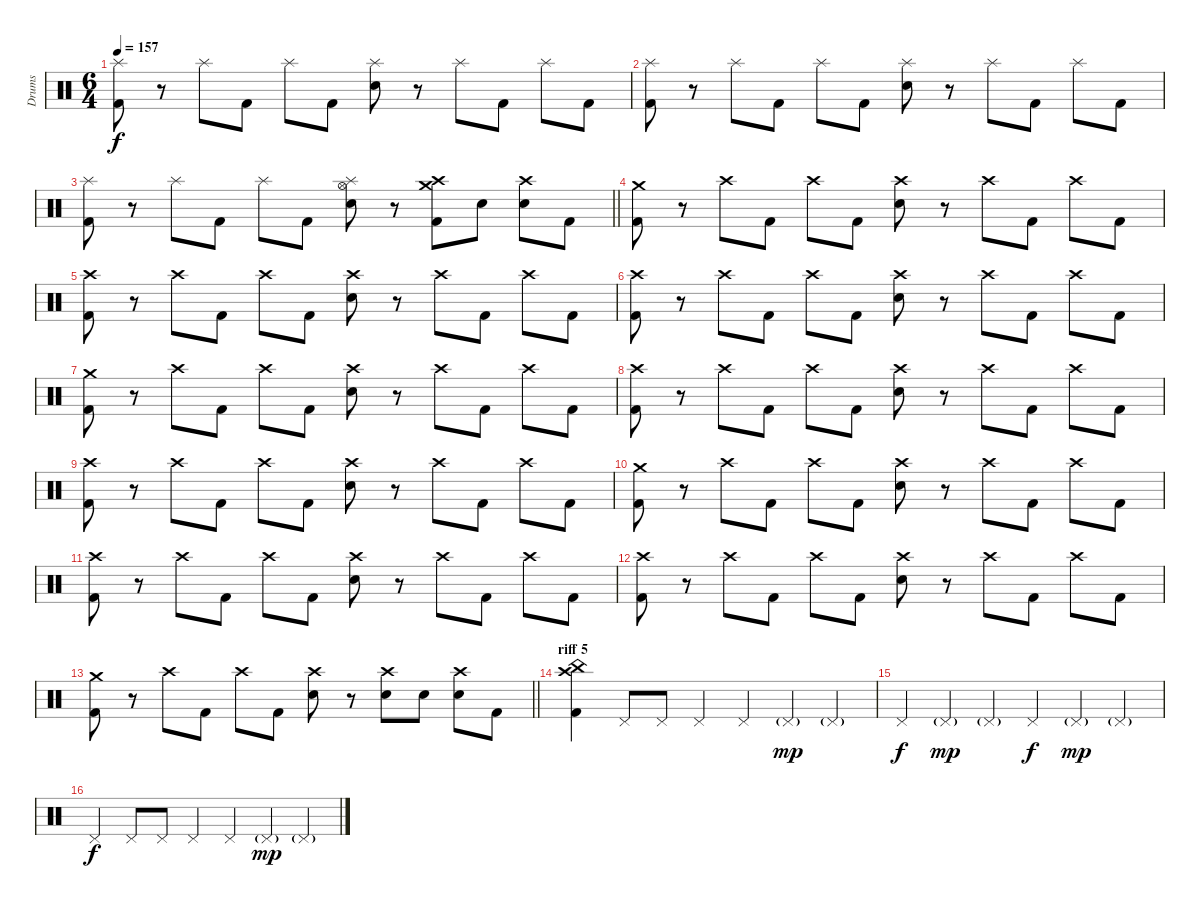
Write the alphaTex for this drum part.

\track ("Drums" "Drums") {instrument percussion}
\staff {score}
\articulation defaults
\ts (6 4)
\tempo 157
\clef neutral
\ks c
("Splash (hit)" "Kick (hit) 2").8{dy f} r.8 "Splash (hit)".8 "Kick (hit) 2".8 "Splash (hit)".8 "Kick (hit) 2".8 ("Splash (hit)" "Electric Snare (hit)").8 r.8 "Splash (hit)".8 "Kick (hit) 2".8 "Splash (hit)".8 "Kick (hit) 2".8 |
("Splash (hit)" "Kick (hit) 2").8 r.8 "Splash (hit)".8 "Kick (hit) 2".8 "Splash (hit)".8 "Kick (hit) 2".8 ("Splash (hit)" "Electric Snare (hit)").8 r.8 "Splash (hit)".8 "Kick (hit) 2".8 "Splash (hit)".8 "Kick (hit) 2".8 |
\barLineRight lightlight
("Splash (hit)" "Kick (hit) 2").8 r.8 "Splash (hit)".8 "Kick (hit) 2".8 "Splash (hit)".8 "Kick (hit) 2".8 ("Hi-Hat (open)" "Splash (hit)" "Electric Snare (hit)").8 r.8 ("Crash high (hit)" "Crash medium (hit)" "Kick (hit) 2").8 "Electric Snare (hit)".8 ("Crash high (hit)" "Electric Snare (hit)").8 "Kick (hit) 2".8 |
("Crash medium (hit)" "Kick (hit) 2").8 r.8 "Crash high (hit)".8 "Kick (hit) 2".8 "Crash high (hit)".8 "Kick (hit) 2".8 ("Crash high (hit)" "Electric Snare (hit)").8 r.8 "Crash high (hit)".8 "Kick (hit) 2".8 "Crash high (hit)".8 "Kick (hit) 2".8 |
("Crash high (hit)" "Kick (hit) 2").8 r.8 "Crash high (hit)".8 "Kick (hit) 2".8 "Crash high (hit)".8 "Kick (hit) 2".8 ("Crash high (hit)" "Electric Snare (hit)").8 r.8 "Crash high (hit)".8 "Kick (hit) 2".8 "Crash high (hit)".8 "Kick (hit) 2".8 |
("Crash high (hit)" "Kick (hit) 2").8 r.8 "Crash high (hit)".8 "Kick (hit) 2".8 "Crash high (hit)".8 "Kick (hit) 2".8 ("Crash high (hit)" "Electric Snare (hit)").8 r.8 "Crash high (hit)".8 "Kick (hit) 2".8 "Crash high (hit)".8 "Kick (hit) 2".8 |
("Crash medium (hit)" "Kick (hit) 2").8 r.8 "Crash high (hit)".8 "Kick (hit) 2".8 "Crash high (hit)".8 "Kick (hit) 2".8 ("Crash high (hit)" "Electric Snare (hit)").8 r.8 "Crash high (hit)".8 "Kick (hit) 2".8 "Crash high (hit)".8 "Kick (hit) 2".8 |
("Crash high (hit)" "Kick (hit) 2").8 r.8 "Crash high (hit)".8 "Kick (hit) 2".8 "Crash high (hit)".8 "Kick (hit) 2".8 ("Crash high (hit)" "Electric Snare (hit)").8 r.8 "Crash high (hit)".8 "Kick (hit) 2".8 "Crash high (hit)".8 "Kick (hit) 2".8 |
("Crash high (hit)" "Kick (hit) 2").8 r.8 "Crash high (hit)".8 "Kick (hit) 2".8 "Crash high (hit)".8 "Kick (hit) 2".8 ("Crash high (hit)" "Electric Snare (hit)").8 r.8 "Crash high (hit)".8 "Kick (hit) 2".8 "Crash high (hit)".8 "Kick (hit) 2".8 |
("Crash medium (hit)" "Kick (hit) 2").8 r.8 "Crash high (hit)".8 "Kick (hit) 2".8 "Crash high (hit)".8 "Kick (hit) 2".8 ("Crash high (hit)" "Electric Snare (hit)").8 r.8 "Crash high (hit)".8 "Kick (hit) 2".8 "Crash high (hit)".8 "Kick (hit) 2".8 |
("Crash high (hit)" "Kick (hit) 2").8 r.8 "Crash high (hit)".8 "Kick (hit) 2".8 "Crash high (hit)".8 "Kick (hit) 2".8 ("Crash high (hit)" "Electric Snare (hit)").8 r.8 "Crash high (hit)".8 "Kick (hit) 2".8 "Crash high (hit)".8 "Kick (hit) 2".8 |
("Crash high (hit)" "Kick (hit) 2").8 r.8 "Crash high (hit)".8 "Kick (hit) 2".8 "Crash high (hit)".8 "Kick (hit) 2".8 ("Crash high (hit)" "Electric Snare (hit)").8 r.8 "Crash high (hit)".8 "Kick (hit) 2".8 "Crash high (hit)".8 "Kick (hit) 2".8 |
\barLineRight lightlight
("Crash medium (hit)" "Kick (hit) 2").8 r.8 "Crash high (hit)".8 "Kick (hit) 2".8 "Crash high (hit)".8 "Kick (hit) 2".8 ("Crash high (hit)" "Electric Snare (hit)").8 r.8 ("Crash high (hit)" "Electric Snare (hit)").8 "Electric Snare (hit)".8 ("Crash high (hit)" "Electric Snare (hit)").8 "Kick (hit) 2".8 |
\section ("" "riff 5")
("China (hit)" "Crash high (hit)" "Kick (hit) 2").4 "Pedal Hi-Hat (hit)".8 "Pedal Hi-Hat (hit)".8 "Pedal Hi-Hat (hit)".4 "Pedal Hi-Hat (hit)".4 "Pedal Hi-Hat (hit)"{g}.4{dy mp} "Pedal Hi-Hat (hit)"{g}.4 |
"Pedal Hi-Hat (hit)".4{dy f} "Pedal Hi-Hat (hit)"{g}.4{dy mp} "Pedal Hi-Hat (hit)"{g}.4 "Pedal Hi-Hat (hit)".4{dy f} "Pedal Hi-Hat (hit)"{g}.4{dy mp} "Pedal Hi-Hat (hit)"{g}.4 |
"Pedal Hi-Hat (hit)".4{dy f} "Pedal Hi-Hat (hit)".8 "Pedal Hi-Hat (hit)".8 "Pedal Hi-Hat (hit)".4 "Pedal Hi-Hat (hit)".4 "Pedal Hi-Hat (hit)"{g}.4{dy mp} "Pedal Hi-Hat (hit)"{g}.4
